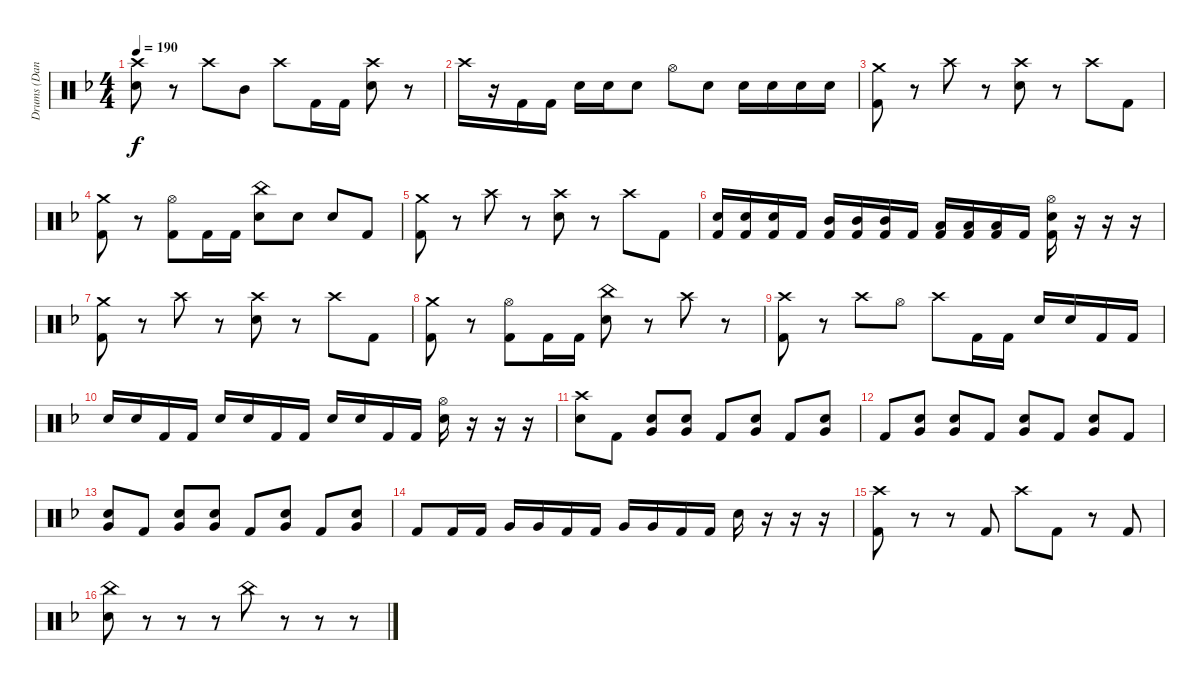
\track ("Drums (Daniel)" "Drums (Dan") {instrument percussion}
\staff {score}
\articulation defaults
\ts (4 4)
\tempo 190
\clef neutral
\ks dminor
("Crash high (hit)" "Electric Snare (hit)").8{dy f} r.8 "Crash high (hit)".8 "Mid Tom (hit)".8 "Crash high (hit)".8 "Kick (hit) 2".16 "Kick (hit) 2".16 ("Crash high (hit)" "Electric Snare (hit)").8 r.8 |
"Crash high (hit)".16 r.16 "Kick (hit) 2".16 "Kick (hit) 2".16 "Electric Snare (hit)".16 "Electric Snare (hit)".16 "Electric Snare (hit)".8 "Hi-Hat (open)".8 "Electric Snare (hit)".8 "Electric Snare (hit)".16 "Electric Snare (hit)".16 "Electric Snare (hit)".16 "Electric Snare (hit)".16 |
("Crash medium (hit)" "Kick (hit) 2").8 r.8 "Crash high (hit)".8 r.8 ("Crash high (hit)" "Electric Snare (hit)").8 r.8 "Crash high (hit)".8 "Kick (hit) 2".8 |
("Crash medium (hit)" "Kick (hit) 2").8 r.8 ("Hi-Hat (open)" "Kick (hit) 2").8 "Kick (hit) 2".16 "Kick (hit) 2".16 ("China (hit)" "Electric Snare (hit)").8 "Electric Snare (hit)".8 "Electric Snare (hit)".8 "Kick (hit) 2".8 |
("Crash medium (hit)" "Kick (hit) 2").8 r.8 "Crash high (hit)".8 r.8 ("Crash high (hit)" "Electric Snare (hit)").8 r.8 "Crash high (hit)".8 "Kick (hit) 2".8 |
("Electric Snare (hit)" "Kick (hit) 2").16 ("Electric Snare (hit)" "Kick (hit) 2").16 ("Electric Snare (hit)" "Kick (hit) 2").16 "Kick (hit) 2".16 ("Mid Tom (hit)" "Kick (hit) 2").16 ("Mid Tom (hit)" "Kick (hit) 2").16 ("Mid Tom (hit)" "Kick (hit) 2").16 "Kick (hit) 2".16 ("Low Tom (hit)" "Kick (hit) 2").16 ("Low Tom (hit)" "Kick (hit) 2").16 ("Low Tom (hit)" "Kick (hit) 2").16 "Kick (hit) 2".16 ("Hi-Hat (open)" "Electric Snare (hit)" "Kick (hit) 2").16 r.16 r.16 r.16 |
("Crash medium (hit)" "Kick (hit) 2").8 r.8 "Crash high (hit)".8 r.8 ("Crash high (hit)" "Electric Snare (hit)").8 r.8 "Crash high (hit)".8 "Kick (hit) 2".8 |
("Crash medium (hit)" "Kick (hit) 2").8 r.8 ("Hi-Hat (open)" "Kick (hit) 2").8 "Kick (hit) 2".16 "Kick (hit) 2".16 ("China (hit)" "Electric Snare (hit)").8 r.8 "Crash high (hit)".8 r.8 |
("Crash high (hit)" "Kick (hit) 2").8 r.8 "Crash high (hit)".8 "Hi-Hat (open)".8 "Crash high (hit)".8 "Kick (hit) 2".16 "Kick (hit) 2".16 "Electric Snare (hit)".16 "Electric Snare (hit)".16 "Kick (hit) 2".16 "Kick (hit) 2".16 |
"Electric Snare (hit)".16 "Electric Snare (hit)".16 "Kick (hit) 2".16 "Kick (hit) 2".16 "Electric Snare (hit)".16 "Electric Snare (hit)".16 "Kick (hit) 2".16 "Kick (hit) 2".16 "Electric Snare (hit)".16 "Electric Snare (hit)".16 "Kick (hit) 2".16 "Kick (hit) 2".16 ("Hi-Hat (open)" "Electric Snare (hit)").16 r.16 r.16 r.16 |
("Crash high (hit)" "Electric Snare (hit)").8 "Kick (hit) 2".8 ("Very Low Tom (hit)" "Electric Snare (hit)").8 ("Very Low Tom (hit)" "Electric Snare (hit)").8 "Kick (hit) 2".8 ("Very Low Tom (hit)" "Electric Snare (hit)").8 "Kick (hit) 2".8 ("Very Low Tom (hit)" "Electric Snare (hit)").8 |
"Kick (hit) 2".8 ("Very Low Tom (hit)" "Electric Snare (hit)").8 ("Very Low Tom (hit)" "Electric Snare (hit)").8 "Kick (hit) 2".8 ("Very Low Tom (hit)" "Electric Snare (hit)").8 "Kick (hit) 2".8 ("Very Low Tom (hit)" "Electric Snare (hit)").8 "Kick (hit) 2".8 |
("Very Low Tom (hit)" "Electric Snare (hit)").8 "Kick (hit) 2".8 ("Very Low Tom (hit)" "Electric Snare (hit)").8 ("Very Low Tom (hit)" "Electric Snare (hit)").8 "Kick (hit) 2".8 ("Very Low Tom (hit)" "Electric Snare (hit)").8 "Kick (hit) 2".8 ("Very Low Tom (hit)" "Electric Snare (hit)").8 |
"Kick (hit) 2".8 "Kick (hit) 2".16 "Kick (hit) 2".16 "Very Low Tom (hit)".16 "Very Low Tom (hit)".16 "Kick (hit) 2".16 "Kick (hit) 2".16 "Very Low Tom (hit)".16 "Very Low Tom (hit)".16 "Kick (hit) 2".16 "Kick (hit) 2".16 "Electric Snare (hit)".16 r.16 r.16 r.16 |
("Crash high (hit)" "Kick (hit) 2").8 r.8 r.8 "Kick (hit) 2".8 "Crash high (hit)".8 "Kick (hit) 2".8 r.8 "Kick (hit) 2".8 |
("China (hit)" "Electric Snare (hit)").8 r.8 r.8 r.8 "China (hit)".8 r.8 r.8 r.8
